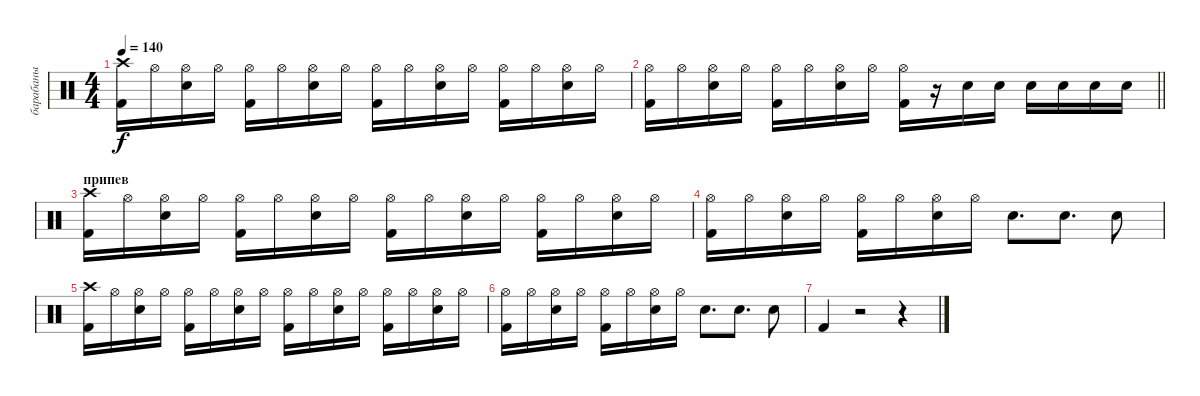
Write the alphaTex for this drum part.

\track ("барабаны" "барабаны") {instrument percussion}
\staff {score}
\articulation defaults
\ts (4 4)
\tempo 140
\clef neutral
\ks c
("Crash high (hit)" "Kick (hit) 2").16{dy f} "Hi-Hat (open)".16 ("Hi-Hat (open)" "Snare (hit) 2").16 "Hi-Hat (open)".16 ("Hi-Hat (open)" "Kick (hit) 2").16 "Hi-Hat (open)".16 ("Hi-Hat (open)" "Snare (hit) 2").16 "Hi-Hat (open)".16 ("Hi-Hat (open)" "Kick (hit) 2").16 "Hi-Hat (open)".16 ("Hi-Hat (open)" "Snare (hit) 2").16 "Hi-Hat (open)".16 ("Hi-Hat (open)" "Kick (hit) 2").16 "Hi-Hat (open)".16 ("Hi-Hat (open)" "Snare (hit) 2").16 "Hi-Hat (open)".16 |
\barLineRight lightlight
("Hi-Hat (open)" "Kick (hit) 2").16 "Hi-Hat (open)".16 ("Hi-Hat (open)" "Snare (hit) 2").16 "Hi-Hat (open)".16 ("Hi-Hat (open)" "Kick (hit) 2").16 "Hi-Hat (open)".16 ("Hi-Hat (open)" "Snare (hit) 2").16 "Hi-Hat (open)".16 ("Hi-Hat (open)" "Kick (hit) 2").16 r.16 "Snare (hit) 2".16 "Snare (hit) 2".16 "Snare (hit) 2".16 "Snare (hit) 2".16 "Snare (hit) 2".16 "Snare (hit) 2".16 |
\section ("" "припев")
("Crash high (hit)" "Kick (hit) 2").16 "Hi-Hat (open)".16 ("Hi-Hat (open)" "Snare (hit) 2").16 "Hi-Hat (open)".16 ("Hi-Hat (open)" "Kick (hit) 2").16 "Hi-Hat (open)".16 ("Hi-Hat (open)" "Snare (hit) 2").16 "Hi-Hat (open)".16 ("Hi-Hat (open)" "Kick (hit) 2").16 "Hi-Hat (open)".16 ("Hi-Hat (open)" "Snare (hit) 2").16 "Hi-Hat (open)".16 ("Hi-Hat (open)" "Kick (hit) 2").16 "Hi-Hat (open)".16 ("Hi-Hat (open)" "Snare (hit) 2").16 "Hi-Hat (open)".16 |
("Hi-Hat (open)" "Kick (hit) 2").16 "Hi-Hat (open)".16 ("Hi-Hat (open)" "Snare (hit) 2").16 "Hi-Hat (open)".16 ("Hi-Hat (open)" "Kick (hit) 2").16 "Hi-Hat (open)".16 ("Hi-Hat (open)" "Snare (hit) 2").16 "Hi-Hat (open)".16 "Snare (hit) 2".8{d} "Snare (hit) 2".8{d} "Snare (hit) 2".8 |
("Crash high (hit)" "Kick (hit) 2").16 "Hi-Hat (open)".16 ("Hi-Hat (open)" "Snare (hit) 2").16 "Hi-Hat (open)".16 ("Hi-Hat (open)" "Kick (hit) 2").16 "Hi-Hat (open)".16 ("Hi-Hat (open)" "Snare (hit) 2").16 "Hi-Hat (open)".16 ("Hi-Hat (open)" "Kick (hit) 2").16 "Hi-Hat (open)".16 ("Hi-Hat (open)" "Snare (hit) 2").16 "Hi-Hat (open)".16 ("Hi-Hat (open)" "Kick (hit) 2").16 "Hi-Hat (open)".16 ("Hi-Hat (open)" "Snare (hit) 2").16 "Hi-Hat (open)".16 |
("Hi-Hat (open)" "Kick (hit) 2").16 "Hi-Hat (open)".16 ("Hi-Hat (open)" "Snare (hit) 2").16 "Hi-Hat (open)".16 ("Hi-Hat (open)" "Kick (hit) 2").16 "Hi-Hat (open)".16 ("Hi-Hat (open)" "Snare (hit) 2").16 "Hi-Hat (open)".16 "Snare (hit) 2".8{d} "Snare (hit) 2".8{d} "Snare (hit) 2".8 |
"Kick (hit) 2".4 r.2 r.4
